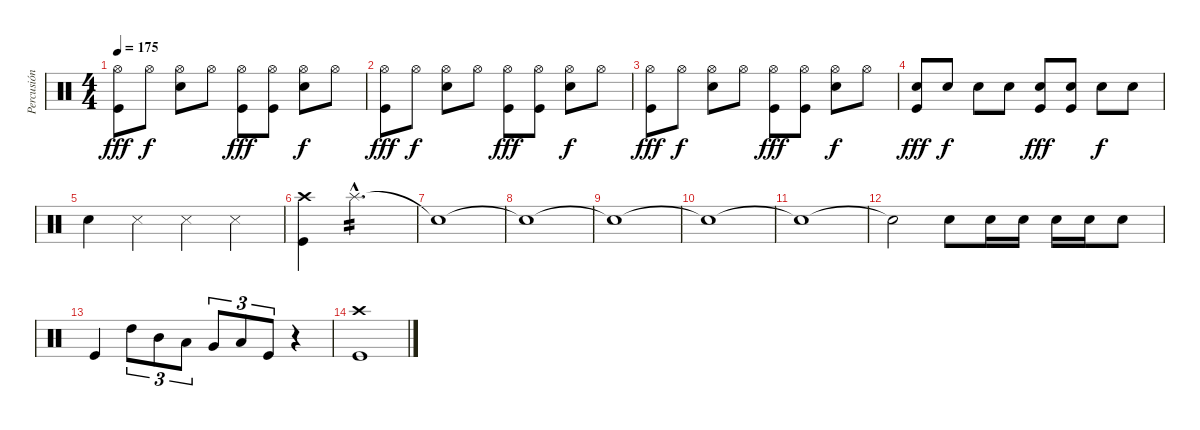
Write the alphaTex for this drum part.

\track ("Percusión" "Percusión") {instrument percussion}
\staff {score}
\articulation defaults
\ts (4 4)
\tempo 175
\clef neutral
\ks c
("Hi-Hat (open)" "Kick (hit)").8{dy fff} "Hi-Hat (open)".8{dy f} ("Hi-Hat (open)" "Electric Snare (hit)").8 "Hi-Hat (open)".8 ("Hi-Hat (open)" "Kick (hit)").8{dy fff} ("Hi-Hat (open)" "Kick (hit)").8 ("Hi-Hat (open)" "Electric Snare (hit)").8{dy f} "Hi-Hat (open)".8 |
("Hi-Hat (open)" "Kick (hit)").8{dy fff} "Hi-Hat (open)".8{dy f} ("Hi-Hat (open)" "Electric Snare (hit)").8 "Hi-Hat (open)".8 ("Hi-Hat (open)" "Kick (hit)").8{dy fff} ("Hi-Hat (open)" "Kick (hit)").8 ("Hi-Hat (open)" "Electric Snare (hit)").8{dy f} "Hi-Hat (open)".8 |
("Hi-Hat (open)" "Kick (hit)").8{dy fff} "Hi-Hat (open)".8{dy f} ("Hi-Hat (open)" "Electric Snare (hit)").8 "Hi-Hat (open)".8 ("Hi-Hat (open)" "Kick (hit)").8{dy fff} ("Hi-Hat (open)" "Kick (hit)").8 ("Hi-Hat (open)" "Electric Snare (hit)").8{dy f} "Hi-Hat (open)".8 |
("Electric Snare (hit)" "Kick (hit)").8{dy fff} "Electric Snare (hit)".8{dy f} "Electric Snare (hit)".8 "Electric Snare (hit)".8 ("Electric Snare (hit)" "Kick (hit)").8{dy fff} ("Electric Snare (hit)" "Kick (hit)").8 "Electric Snare (hit)".8{dy f} "Electric Snare (hit)".8 |
"Electric Snare (hit)".4 "Snare (side stick) 3".4 "Snare (side stick) 3".4 "Snare (side stick) 3".4 |
("Crash high (hit)" "Kick (hit)").4 "Splash (hit)"{hac}.2{d tp 2} |
"Snare (hit)"{t}.1 |
"Snare (hit)"{t}.1 |
"Snare (hit)"{t}.1 |
"Snare (hit)"{t}.1 |
"Snare (hit)"{t}.1 |
"Snare (hit)"{t}.2 "Electric Snare (hit)".8 "Electric Snare (hit)".16 "Electric Snare (hit)".16 "Electric Snare (hit)".16 "Electric Snare (hit)".16 "Electric Snare (hit)".8 |
"Kick (hit)".4 "High Tom (hit)".8{tu (3 2)} "Mid Tom (hit)".8{tu (3 2)} "Low Tom (hit)".8{tu (3 2)} "Very Low Tom (hit)".8{tu (3 2)} "Low Floor Tom (hit)".8{tu (3 2)} "Kick (hit)".8{tu (3 2)} r.4 |
("Crash high (hit)" "Kick (hit)").1
